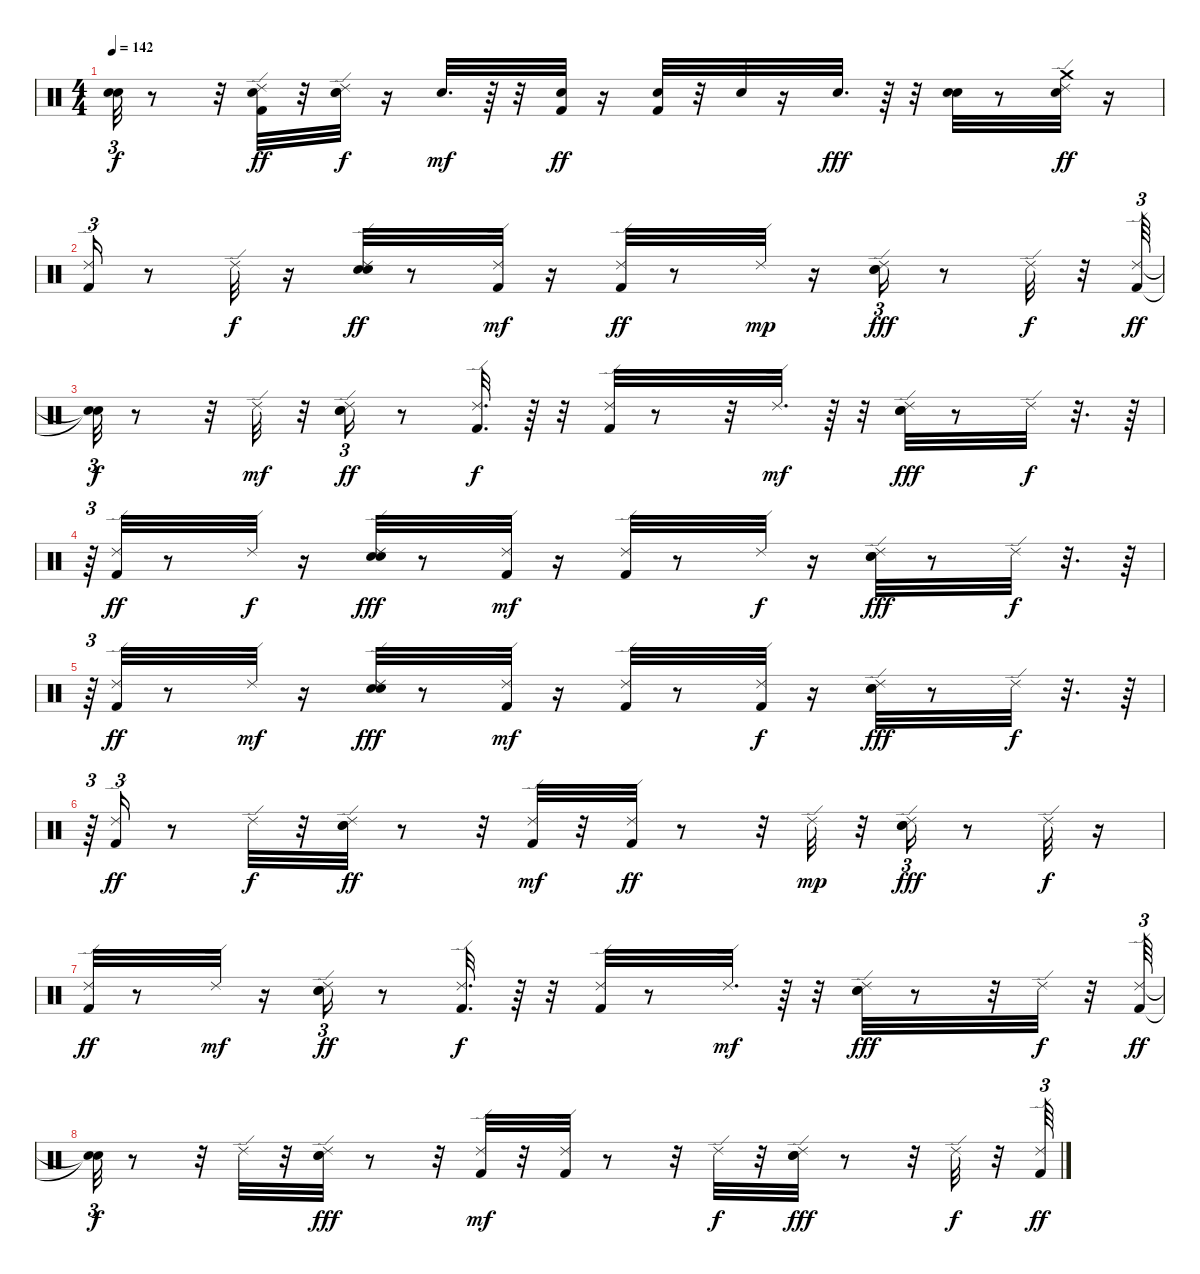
\track "" {instrument percussion}
\staff {score}
\articulation defaults
\ts (4 4)
\tempo 142
\clef neutral
\ks c
("Snare (hit)"{t} "Snare (hit)"{t}).32{tu (3 2) dy f} r.8 r.32 ("Electric Snare (hit)" "Kick (hit) 2" "Ride (edge) 2").32{dy ff} r.32 ("Hand Clap (hit)" "Electric Snare (hit)" "Ride (edge) 2").32{dy f} r.16 "Electric Snare (hit)".32{d dy mf} r.64 r.32 ("Electric Snare (hit)" "Kick (hit) 2").32{dy ff} r.16 ("Electric Snare (hit)" "Kick (hit) 2").32 r.32 "Electric Snare (hit)".32 r.16 "Electric Snare (hit)".32{d dy fff} r.64 r.32 ("Electric Snare (hit)" "Hand Clap (hit)").32 r.8 ("Electric Snare (hit)" "Ride (edge) 2" "Crash medium (hit)").32{dy ff} r.16 |
("Ride (edge) 2" "Kick (hit) 2").16{tu (3 2)} r.8 "Ride (edge) 2".32{dy f} r.16 ("Hand Clap (hit)" "Electric Snare (hit)" "Ride (edge) 2").32{dy ff} r.8 ("Kick (hit) 2" "Ride (edge) 2").32{dy mf} r.16 ("Kick (hit) 2" "Ride (edge) 2").32{dy ff} r.8 "Ride (edge) 2".32{dy mp} r.16 ("Hand Clap (hit)" "Electric Snare (hit)" "Ride (edge) 2").16{tu (3 2) dy fff} r.8 "Ride (edge) 2".32{dy f} r.32 ("Kick (hit) 2" "Ride (edge) 2").64{tu (3 2) dy ff} |
("Snare (hit)"{t} "Snare (hit)"{t}).32{tu (3 2) dy f} r.8 r.32 "Ride (edge) 2".32{dy mf} r.32 ("Hand Clap (hit)" "Electric Snare (hit)" "Ride (edge) 2").16{tu (3 2) dy ff} r.8 ("Kick (hit) 2" "Ride (edge) 2").32{d dy f} r.64 r.32 ("Kick (hit) 2" "Ride (edge) 2").32 r.8 r.32 "Ride (edge) 2".32{d dy mf} r.64 r.32 ("Hand Clap (hit)" "Electric Snare (hit)" "Ride (edge) 2").32{dy fff} r.8 "Ride (edge) 2".32{dy f} r.32{d} r.64 |
r.64{tu (3 2)} ("Ride (edge) 2" "Kick (hit) 2").32{dy ff} r.8 "Ride (edge) 2".32{dy f} r.16 ("Electric Snare (hit)" "Hand Clap (hit)" "Ride (edge) 2").32{dy fff} r.8 ("Kick (hit) 2" "Ride (edge) 2").32{dy mf} r.16 ("Kick (hit) 2" "Ride (edge) 2").32 r.8 "Ride (edge) 2".32{dy f} r.16 ("Electric Snare (hit)" "Hand Clap (hit)" "Ride (edge) 2").32{dy fff} r.8 "Ride (edge) 2".32{dy f} r.32{d} r.64 |
r.64{tu (3 2)} ("Kick (hit) 2" "Ride (edge) 2").32{dy ff} r.8 "Ride (edge) 2".32{dy mf} r.16 ("Hand Clap (hit)" "Electric Snare (hit)" "Ride (edge) 2").32{dy fff} r.8 ("Kick (hit) 2" "Ride (edge) 2").32{dy mf} r.16 ("Kick (hit) 2" "Ride (edge) 2").32 r.8 ("Ride (edge) 2" "Kick (hit) 2").32{dy f} r.16 ("Electric Snare (hit)" "Hand Clap (hit)" "Ride (edge) 2").32{dy fff} r.8 "Ride (edge) 2".32{dy f} r.32{d} r.64 |
r.64{tu (3 2)} ("Ride (edge) 2" "Kick (hit) 2").16{tu (3 2) dy ff} r.8 "Ride (edge) 2".32{dy f} r.32 ("Hand Clap (hit)" "Electric Snare (hit)" "Ride (edge) 2").32{dy ff} r.8 r.32 ("Kick (hit) 2" "Ride (edge) 2").32{dy mf} r.32 ("Kick (hit) 2" "Ride (edge) 2").32{dy ff} r.8 r.32 "Ride (edge) 2".32{dy mp} r.32 ("Hand Clap (hit)" "Electric Snare (hit)" "Ride (edge) 2").16{tu (3 2) dy fff} r.8 "Ride (edge) 2".32{dy f} r.16 |
("Kick (hit) 2" "Ride (edge) 2").32{dy ff} r.8 "Ride (edge) 2".32{dy mf} r.16 ("Hand Clap (hit)" "Electric Snare (hit)" "Ride (edge) 2").16{tu (3 2) dy ff} r.8 ("Kick (hit) 2" "Ride (edge) 2").32{d dy f} r.64 r.32 ("Kick (hit) 2" "Ride (edge) 2").32 r.8 "Ride (edge) 2".32{d dy mf} r.64 r.32 ("Hand Clap (hit)" "Electric Snare (hit)" "Ride (edge) 2").32{dy fff} r.8 r.32 "Ride (edge) 2".32{dy f} r.32 ("Ride (edge) 2" "Kick (hit) 2").64{tu (3 2) dy ff} |
("Snare (hit)"{t} "Snare (hit)"{t}).32{tu (3 2) dy f} r.8 r.32 "Ride (edge) 2".32 r.32 ("Electric Snare (hit)" "Hand Clap (hit)" "Ride (edge) 2").32{dy fff} r.8 r.32 ("Kick (hit) 2" "Ride (edge) 2").32{dy mf} r.32 ("Kick (hit) 2" "Ride (edge) 2").32 r.8 r.32 "Ride (edge) 2".32{dy f} r.32 ("Electric Snare (hit)" "Hand Clap (hit)" "Ride (edge) 2").32{dy fff} r.8 r.32 "Ride (edge) 2".32{dy f} r.32 ("Kick (hit) 2" "Ride (edge) 2").64{tu (3 2) dy ff}
